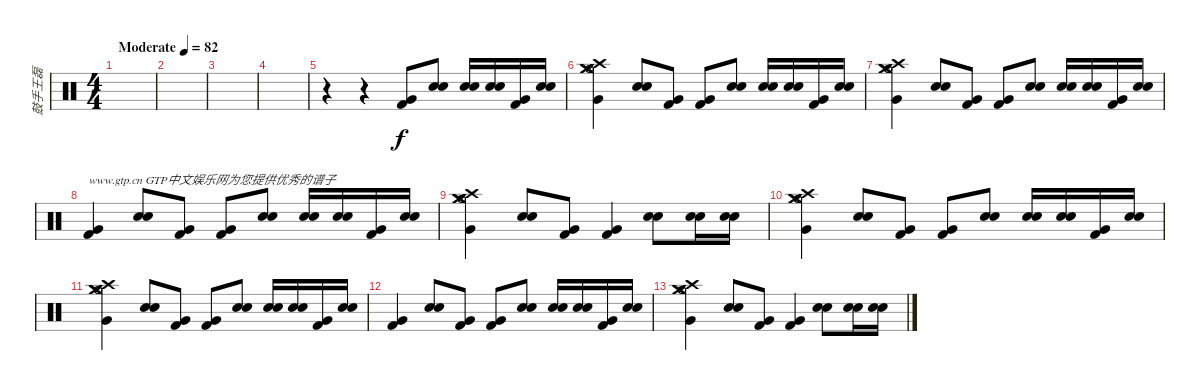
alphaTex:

\track ("鼓手王磊" "鼓手王磊") {instrument percussion}
\staff {score}
\articulation defaults
\ts (4 4)
\tempo (82 "Moderate")
\clef neutral
\ks c
|
|
|
|
r.4 r.4 ("Very Low Tom (hit)" "Kick (hit) 2").8 ("Electric Snare (hit)" "Electric Snare (hit)").8 ("Electric Snare (hit)" "Electric Snare (hit)").16 ("Electric Snare (hit)" "Electric Snare (hit)").16 ("Very Low Tom (hit)" "Kick (hit) 2").16 ("Electric Snare (hit)" "Electric Snare (hit)").16 |
("Crash medium (hit)" "Crash medium (hit)" "Very Low Tom (hit)" "Crash high (hit)" "Hi-Hat (open)" "Hi-Hat (open)").4 ("Electric Snare (hit)" "Electric Snare (hit)").8 ("Very Low Tom (hit)" "Kick (hit) 2").8 ("Very Low Tom (hit)" "Kick (hit) 2").8 ("Electric Snare (hit)" "Electric Snare (hit)").8 ("Electric Snare (hit)" "Electric Snare (hit)").16 ("Electric Snare (hit)" "Electric Snare (hit)").16 ("Very Low Tom (hit)" "Kick (hit) 2").16 ("Electric Snare (hit)" "Electric Snare (hit)").16 |
("Crash medium (hit)" "Crash medium (hit)" "Very Low Tom (hit)" "Crash high (hit)" "Hi-Hat (open)" "Hi-Hat (open)").4 ("Electric Snare (hit)" "Electric Snare (hit)").8 ("Very Low Tom (hit)" "Kick (hit) 2").8 ("Very Low Tom (hit)" "Kick (hit) 2").8 ("Electric Snare (hit)" "Electric Snare (hit)").8 ("Electric Snare (hit)" "Electric Snare (hit)").16 ("Electric Snare (hit)" "Electric Snare (hit)").16 ("Very Low Tom (hit)" "Kick (hit) 2").16 ("Electric Snare (hit)" "Electric Snare (hit)").16 |
("Very Low Tom (hit)" "Kick (hit) 2").4{txt "www.gtp.cn GTP中文娱乐网为您提供优秀的谱子"} ("Electric Snare (hit)" "Electric Snare (hit)").8 ("Very Low Tom (hit)" "Kick (hit) 2").8 ("Very Low Tom (hit)" "Kick (hit) 2").8 ("Electric Snare (hit)" "Electric Snare (hit)").8 ("Electric Snare (hit)" "Electric Snare (hit)").16 ("Electric Snare (hit)" "Electric Snare (hit)").16 ("Very Low Tom (hit)" "Kick (hit) 2").16 ("Electric Snare (hit)" "Electric Snare (hit)").16 |
("Crash medium (hit)" "Crash medium (hit)" "Very Low Tom (hit)" "Crash high (hit)" "Hi-Hat (open)" "Hi-Hat (open)").4 ("Electric Snare (hit)" "Electric Snare (hit)").8 ("Very Low Tom (hit)" "Kick (hit) 2").8 ("Very Low Tom (hit)" "Kick (hit) 2").4 ("Electric Snare (hit)" "Electric Snare (hit)").8 ("Electric Snare (hit)" "Electric Snare (hit)").16 ("Electric Snare (hit)" "Electric Snare (hit)").16 |
("Crash medium (hit)" "Crash medium (hit)" "Very Low Tom (hit)" "Crash high (hit)" "Hi-Hat (open)" "Hi-Hat (open)").4 ("Electric Snare (hit)" "Electric Snare (hit)").8 ("Very Low Tom (hit)" "Kick (hit) 2").8 ("Very Low Tom (hit)" "Kick (hit) 2").8 ("Electric Snare (hit)" "Electric Snare (hit)").8 ("Electric Snare (hit)" "Electric Snare (hit)").16 ("Electric Snare (hit)" "Electric Snare (hit)").16 ("Very Low Tom (hit)" "Kick (hit) 2").16 ("Electric Snare (hit)" "Electric Snare (hit)").16 |
("Crash medium (hit)" "Crash medium (hit)" "Very Low Tom (hit)" "Crash high (hit)" "Hi-Hat (open)" "Hi-Hat (open)").4 ("Electric Snare (hit)" "Electric Snare (hit)").8 ("Very Low Tom (hit)" "Kick (hit) 2").8 ("Very Low Tom (hit)" "Kick (hit) 2").8 ("Electric Snare (hit)" "Electric Snare (hit)").8 ("Electric Snare (hit)" "Electric Snare (hit)").16 ("Electric Snare (hit)" "Electric Snare (hit)").16 ("Very Low Tom (hit)" "Kick (hit) 2").16 ("Electric Snare (hit)" "Electric Snare (hit)").16 |
("Very Low Tom (hit)" "Kick (hit) 2").4 ("Electric Snare (hit)" "Electric Snare (hit)").8 ("Very Low Tom (hit)" "Kick (hit) 2").8 ("Very Low Tom (hit)" "Kick (hit) 2").8 ("Electric Snare (hit)" "Electric Snare (hit)").8 ("Electric Snare (hit)" "Electric Snare (hit)").16 ("Electric Snare (hit)" "Electric Snare (hit)").16 ("Very Low Tom (hit)" "Kick (hit) 2").16 ("Electric Snare (hit)" "Electric Snare (hit)").16 |
("Crash medium (hit)" "Crash medium (hit)" "Very Low Tom (hit)" "Crash high (hit)" "Hi-Hat (open)" "Hi-Hat (open)").4 ("Electric Snare (hit)" "Electric Snare (hit)").8 ("Very Low Tom (hit)" "Kick (hit) 2").8 ("Very Low Tom (hit)" "Kick (hit) 2").4 ("Electric Snare (hit)" "Electric Snare (hit)").8 ("Electric Snare (hit)" "Electric Snare (hit)").16 ("Electric Snare (hit)" "Electric Snare (hit)").16
